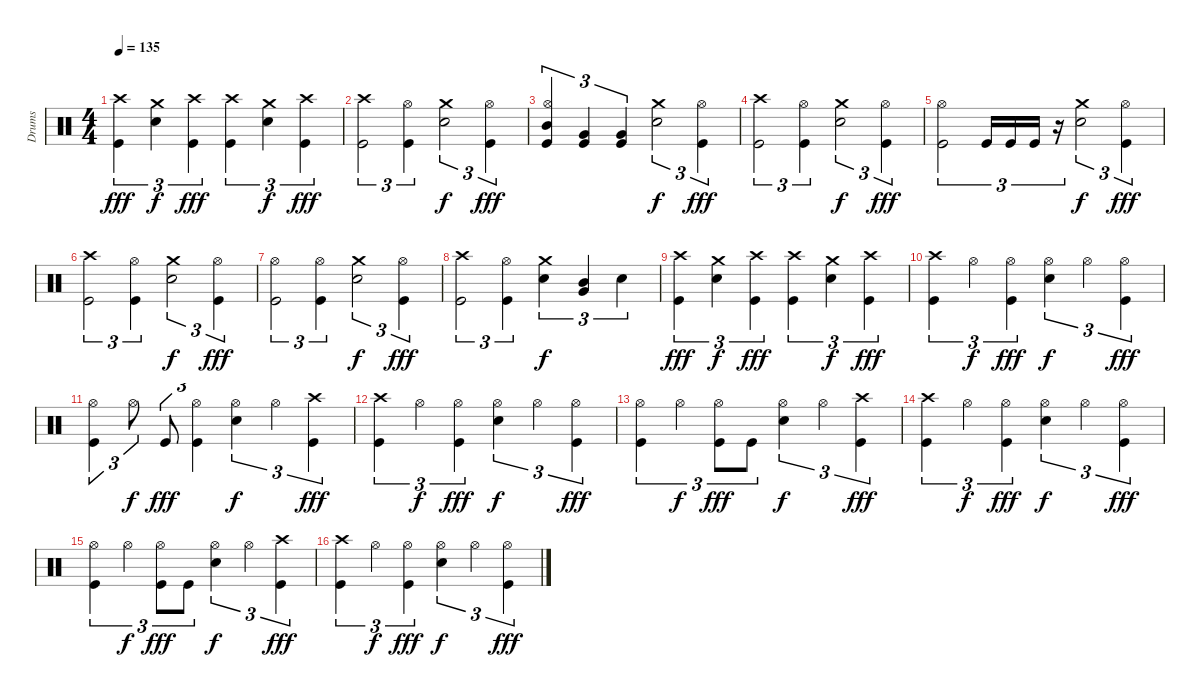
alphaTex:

\track ("Drums" "Drums") {instrument percussion}
\staff {score}
\articulation defaults
\ts (4 4)
\tempo 135
\clef neutral
\ks c
("Crash high (hit)" "Kick (hit)").4{tu (3 2) dy fff} ("Crash medium (hit)" "Electric Snare (hit)").4{tu (3 2) dy f} ("Crash high (hit)" "Kick (hit)").4{tu (3 2) dy fff} ("Crash high (hit)" "Kick (hit)").4{tu (3 2)} ("Crash medium (hit)" "Electric Snare (hit)").4{tu (3 2) dy f} ("Crash high (hit)" "Kick (hit)").4{tu (3 2) dy fff} |
("Crash high (hit)" "Kick (hit)").2{tu (3 2)} ("Hi-Hat (open)" "Kick (hit)").4{tu (3 2)} ("Crash medium (hit)" "Electric Snare (hit)").2{tu (3 2) dy f} ("Hi-Hat (open)" "Kick (hit)").4{tu (3 2) dy fff} |
("Hi-Hat (open)" "Mid Tom (hit)" "Kick (hit)").4{tu (3 2)} ("Very Low Tom (hit)" "Kick (hit)").4{tu (3 2)} ("Very Low Tom (hit)" "Kick (hit)").4{tu (3 2)} ("Crash medium (hit)" "Electric Snare (hit)").2{tu (3 2) dy f} ("Hi-Hat (open)" "Kick (hit)").4{tu (3 2) dy fff} |
("Crash high (hit)" "Kick (hit)").2{tu (3 2)} ("Hi-Hat (open)" "Kick (hit)").4{tu (3 2)} ("Crash medium (hit)" "Electric Snare (hit)").2{tu (3 2) dy f} ("Hi-Hat (open)" "Kick (hit)").4{tu (3 2) dy fff} |
("Hi-Hat (open)" "Kick (hit)").2{tu (3 2)} "Kick (hit)".16{tu (3 2)} "Kick (hit)".16{tu (3 2)} "Kick (hit)".16{tu (3 2)} r.16{tu (3 2)} ("Crash medium (hit)" "Electric Snare (hit)").2{tu (3 2) dy f} ("Hi-Hat (open)" "Kick (hit)").4{tu (3 2) dy fff} |
("Crash high (hit)" "Kick (hit)").2{tu (3 2)} ("Hi-Hat (open)" "Kick (hit)").4{tu (3 2)} ("Crash medium (hit)" "Electric Snare (hit)").2{tu (3 2) dy f} ("Hi-Hat (open)" "Kick (hit)").4{tu (3 2) dy fff} |
("Hi-Hat (open)" "Kick (hit)").2{tu (3 2)} ("Hi-Hat (open)" "Kick (hit)").4{tu (3 2)} ("Crash medium (hit)" "Electric Snare (hit)").2{tu (3 2) dy f} ("Hi-Hat (open)" "Kick (hit)").4{tu (3 2) dy fff} |
("Crash high (hit)" "Kick (hit)").2{tu (3 2)} ("Hi-Hat (open)" "Kick (hit)").4{tu (3 2)} ("Crash medium (hit)" "Electric Snare (hit)").4{tu (3 2) dy f} ("Mid Tom (hit)" "Very Low Tom (hit)").4{tu (3 2)} "Electric Snare (hit)".4{tu (3 2)} |
("Crash high (hit)" "Kick (hit)").4{tu (3 2) dy fff} ("Crash medium (hit)" "Electric Snare (hit)").4{tu (3 2) dy f} ("Crash high (hit)" "Kick (hit)").4{tu (3 2) dy fff} ("Crash high (hit)" "Kick (hit)").4{tu (3 2)} ("Crash medium (hit)" "Electric Snare (hit)").4{tu (3 2) dy f} ("Crash high (hit)" "Kick (hit)").4{tu (3 2) dy fff} |
("Crash high (hit)" "Kick (hit)").4{tu (3 2)} "Hi-Hat (open)".4{tu (3 2) dy f} ("Hi-Hat (open)" "Kick (hit)").4{tu (3 2) dy fff} ("Hi-Hat (open)" "Electric Snare (hit)").4{tu (3 2) dy f} "Hi-Hat (open)".4{tu (3 2)} ("Hi-Hat (open)" "Kick (hit)").4{tu (3 2) dy fff} |
("Hi-Hat (open)" "Kick (hit)").4{tu (3 2)} "Hi-Hat (open)".8{tu (3 2) dy f} "Kick (hit)".8{tu (3 2) dy fff} ("Hi-Hat (open)" "Kick (hit)").4{tu (3 2)} ("Hi-Hat (open)" "Electric Snare (hit)").4{tu (3 2) dy f} "Hi-Hat (open)".4{tu (3 2)} ("Crash high (hit)" "Kick (hit)").4{tu (3 2) dy fff} |
("Crash high (hit)" "Kick (hit)").4{tu (3 2)} "Hi-Hat (open)".4{tu (3 2) dy f} ("Hi-Hat (open)" "Kick (hit)").4{tu (3 2) dy fff} ("Hi-Hat (open)" "Electric Snare (hit)").4{tu (3 2) dy f} "Hi-Hat (open)".4{tu (3 2)} ("Hi-Hat (open)" "Kick (hit)").4{tu (3 2) dy fff} |
("Hi-Hat (open)" "Kick (hit)").4{tu (3 2)} "Hi-Hat (open)".4{tu (3 2) dy f} ("Hi-Hat (open)" "Kick (hit)").8{tu (3 2) dy fff} "Kick (hit)".8{tu (3 2)} ("Hi-Hat (open)" "Electric Snare (hit)").4{tu (3 2) dy f} "Hi-Hat (open)".4{tu (3 2)} ("Crash high (hit)" "Kick (hit)").4{tu (3 2) dy fff} |
("Crash high (hit)" "Kick (hit)").4{tu (3 2)} "Hi-Hat (open)".4{tu (3 2) dy f} ("Hi-Hat (open)" "Kick (hit)").4{tu (3 2) dy fff} ("Hi-Hat (open)" "Electric Snare (hit)").4{tu (3 2) dy f} "Hi-Hat (open)".4{tu (3 2)} ("Hi-Hat (open)" "Kick (hit)").4{tu (3 2) dy fff} |
("Hi-Hat (open)" "Kick (hit)").4{tu (3 2)} "Hi-Hat (open)".4{tu (3 2) dy f} ("Hi-Hat (open)" "Kick (hit)").8{tu (3 2) dy fff} "Kick (hit)".8{tu (3 2)} ("Hi-Hat (open)" "Electric Snare (hit)").4{tu (3 2) dy f} "Hi-Hat (open)".4{tu (3 2)} ("Crash high (hit)" "Kick (hit)").4{tu (3 2) dy fff} |
("Crash high (hit)" "Kick (hit)").4{tu (3 2)} "Hi-Hat (open)".4{tu (3 2) dy f} ("Hi-Hat (open)" "Kick (hit)").4{tu (3 2) dy fff} ("Hi-Hat (open)" "Electric Snare (hit)").4{tu (3 2) dy f} "Hi-Hat (open)".4{tu (3 2)} ("Hi-Hat (open)" "Kick (hit)").4{tu (3 2) dy fff}
